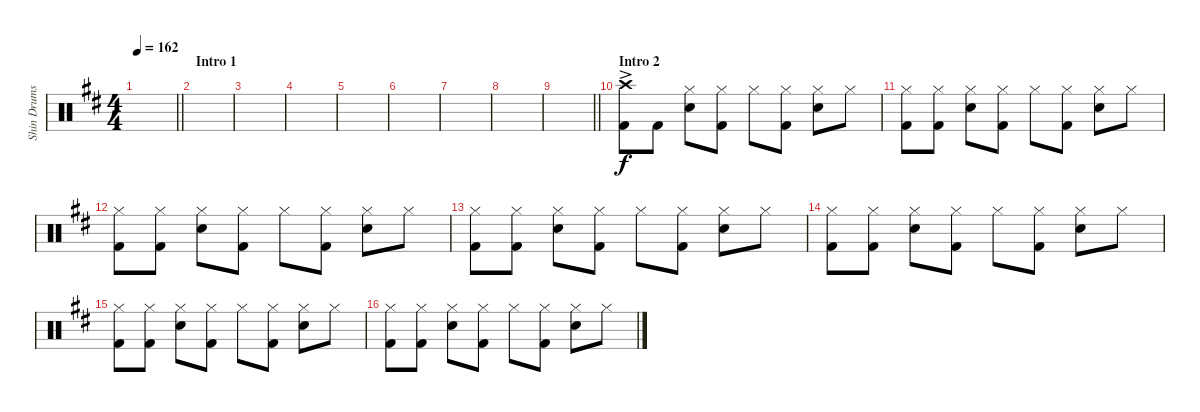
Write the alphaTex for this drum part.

\track ("Shin Drums" "Shin Drums") {instrument percussion}
\staff {score}
\articulation defaults
\ts (4 4)
\tempo 162
\clef neutral
\barLineRight lightlight
\ks d
|
\section ("" "Intro 1")
|
|
|
|
|
|
|
\barLineRight lightlight
|
\section ("" "Intro 2")
("Crash high (hit)"{ac} "Kick (hit) 2").8 "Kick (hit) 2".8{dy f} ("Hi-Hat (closed)" "Snare (hit) 2").8 ("Hi-Hat (closed)" "Kick (hit) 2").8 "Hi-Hat (closed)".8 ("Hi-Hat (closed)" "Kick (hit) 2").8 ("Hi-Hat (closed)" "Snare (hit) 2").8 "Hi-Hat (closed)".8 |
("Hi-Hat (closed)" "Kick (hit) 2").8 ("Hi-Hat (closed)" "Kick (hit) 2").8 ("Hi-Hat (closed)" "Snare (hit) 2").8 ("Hi-Hat (closed)" "Kick (hit) 2").8 "Hi-Hat (closed)".8 ("Hi-Hat (closed)" "Kick (hit) 2").8 ("Hi-Hat (closed)" "Snare (hit) 2").8 "Hi-Hat (closed)".8 |
("Hi-Hat (closed)" "Kick (hit) 2").8 ("Hi-Hat (closed)" "Kick (hit) 2").8 ("Hi-Hat (closed)" "Snare (hit) 2").8 ("Hi-Hat (closed)" "Kick (hit) 2").8 "Hi-Hat (closed)".8 ("Hi-Hat (closed)" "Kick (hit) 2").8 ("Hi-Hat (closed)" "Snare (hit) 2").8 "Hi-Hat (closed)".8 |
("Hi-Hat (closed)" "Kick (hit) 2").8 ("Hi-Hat (closed)" "Kick (hit) 2").8 ("Hi-Hat (closed)" "Snare (hit) 2").8 ("Hi-Hat (closed)" "Kick (hit) 2").8 "Hi-Hat (closed)".8 ("Hi-Hat (closed)" "Kick (hit) 2").8 ("Hi-Hat (closed)" "Snare (hit) 2").8 "Hi-Hat (closed)".8 |
("Hi-Hat (closed)" "Kick (hit) 2").8 ("Hi-Hat (closed)" "Kick (hit) 2").8 ("Hi-Hat (closed)" "Snare (hit) 2").8 ("Hi-Hat (closed)" "Kick (hit) 2").8 "Hi-Hat (closed)".8 ("Hi-Hat (closed)" "Kick (hit) 2").8 ("Hi-Hat (closed)" "Snare (hit) 2").8 "Hi-Hat (closed)".8 |
("Hi-Hat (closed)" "Kick (hit) 2").8 ("Hi-Hat (closed)" "Kick (hit) 2").8 ("Hi-Hat (closed)" "Snare (hit) 2").8 ("Hi-Hat (closed)" "Kick (hit) 2").8 "Hi-Hat (closed)".8 ("Hi-Hat (closed)" "Kick (hit) 2").8 ("Hi-Hat (closed)" "Snare (hit) 2").8 "Hi-Hat (closed)".8 |
("Hi-Hat (closed)" "Kick (hit) 2").8 ("Hi-Hat (closed)" "Kick (hit) 2").8 ("Hi-Hat (closed)" "Snare (hit) 2").8 ("Hi-Hat (closed)" "Kick (hit) 2").8 "Hi-Hat (closed)".8 ("Hi-Hat (closed)" "Kick (hit) 2").8 ("Hi-Hat (closed)" "Snare (hit) 2").8 "Hi-Hat (closed)".8
